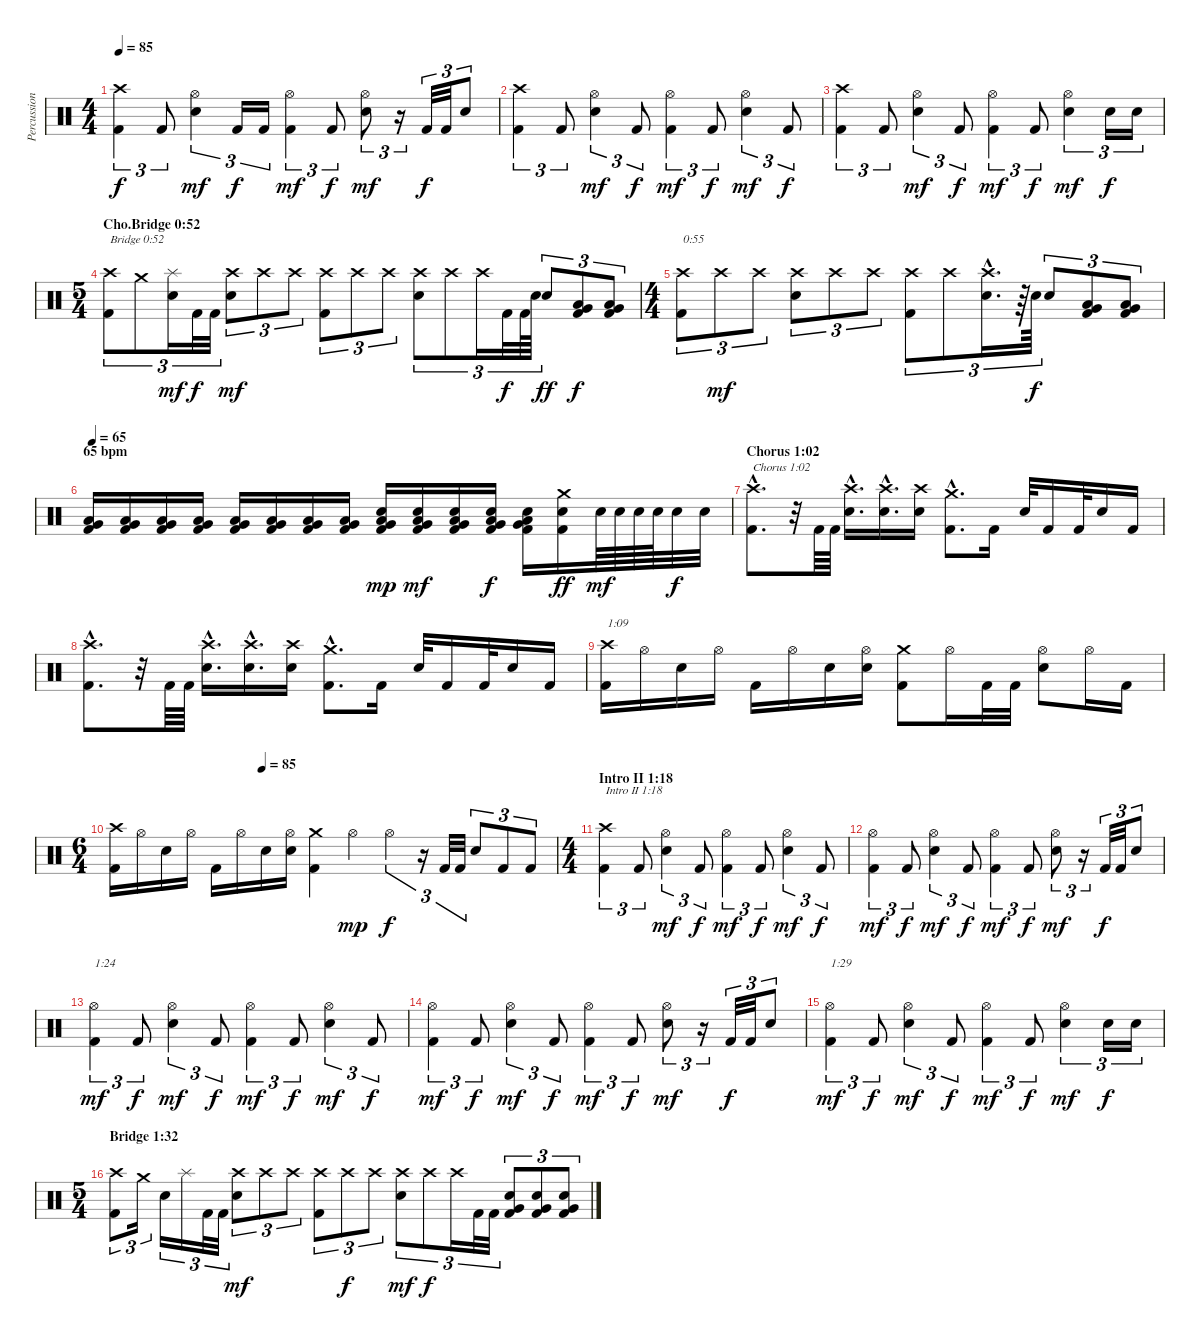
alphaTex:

\track ("Percussion" "Percussion") {instrument percussion}
\staff {score}
\articulation defaults
\ts (4 4)
\tempo 85
\clef neutral
\ks c
("Kick (hit) 2" "Crash high (hit)").4{tu (3 2) dy f} "Kick (hit) 2".8{tu (3 2)} ("Electric Snare (hit)" "Hi-Hat (open)").4{tu (3 2) dy mf} "Kick (hit) 2".16{tu (3 2) dy f} "Kick (hit) 2".16{tu (3 2)} ("Kick (hit) 2" "Hi-Hat (open)").4{tu (3 2) dy mf} "Kick (hit) 2".8{tu (3 2) dy f} ("Electric Snare (hit)" "Hi-Hat (open)").8{tu (3 2) dy mf} r.16{tu (3 2)} "Kick (hit) 2".32{tu (3 2) dy f} "Kick (hit) 2".32{tu (3 2)} "Electric Snare (hit)".8{tu (3 2)} |
("Kick (hit) 2" "Crash high (hit)").4{tu (3 2)} "Kick (hit) 2".8{tu (3 2)} ("Electric Snare (hit)" "Hi-Hat (open)").4{tu (3 2) dy mf} "Kick (hit) 2".8{tu (3 2) dy f} ("Kick (hit) 2" "Hi-Hat (open)").4{tu (3 2) dy mf} "Kick (hit) 2".8{tu (3 2) dy f} ("Electric Snare (hit)" "Hi-Hat (open)").4{tu (3 2) dy mf} "Kick (hit) 2".8{tu (3 2) dy f} |
("Kick (hit) 2" "Crash high (hit)").4{tu (3 2)} "Kick (hit) 2".8{tu (3 2)} ("Electric Snare (hit)" "Hi-Hat (open)").4{tu (3 2) dy mf} "Kick (hit) 2".8{tu (3 2) dy f} ("Kick (hit) 2" "Hi-Hat (open)").4{tu (3 2) dy mf} "Kick (hit) 2".8{tu (3 2) dy f} ("Electric Snare (hit)" "Hi-Hat (open)").4{tu (3 2) dy mf} "Electric Snare (hit)".16{tu (3 2) dy f} "Electric Snare (hit)".16{tu (3 2)} |
\ts (5 4)
\section ("" "Cho.Bridge 0:52")
("Kick (hit) 2" "Crash high (hit)").8{tu (3 2) txt "Bridge 0:52"} "Crash medium (hit)".8{tu (3 2)} ("Electric Snare (hit)" "Splash (hit)").16{tu (3 2) dy mf} "Kick (hit) 2".32{tu (3 2) dy f} "Kick (hit) 2".32{tu (3 2)} ("Electric Snare (hit)" "Crash high (hit)").8{tu (3 2) dy mf} "Crash high (hit)".8{tu (3 2)} "Crash high (hit)".8{tu (3 2)} ("Kick (hit) 2" "Crash high (hit)").8{tu (3 2)} "Crash high (hit)".8{tu (3 2)} "Crash high (hit)".8{tu (3 2)} ("Electric Snare (hit)" "Crash high (hit)").8{tu (3 2)} "Crash high (hit)".8{tu (3 2)} "Crash high (hit)".16{tu (3 2)} "Kick (hit) 2".32{tu (3 2) dy f} "Kick (hit) 2".64{tu (3 2)} "Electric Snare (hit)".64{tu (3 2)} "Electric Snare (hit)".8{tu (3 2) dy ff} ("Kick (hit) 2" "Low Tom (hit)" "Very Low Tom (hit)").8{tu (3 2) dy f} ("Kick (hit) 2" "Low Tom (hit)" "Very Low Tom (hit)").8{tu (3 2)} |
\ts (4 4)
("Kick (hit) 2" "Crash high (hit)").8{tu (3 2) txt "0:55"} "Crash high (hit)".8{tu (3 2) dy mf} "Crash high (hit)".8{tu (3 2)} ("Electric Snare (hit)" "Crash high (hit)").8{tu (3 2)} "Crash high (hit)".8{tu (3 2)} "Crash high (hit)".8{tu (3 2)} ("Kick (hit) 2" "Crash high (hit)").8{tu (3 2)} "Crash high (hit)".8{tu (3 2)} ("Electric Snare (hit)"{hac} "Crash high (hit)"{hac}).16{d tu (3 2)} r.64{tu (3 2)} "Electric Snare (hit)".64{tu (3 2) dy f} "Electric Snare (hit)".8{tu (3 2)} ("Kick (hit) 2" "Low Tom (hit)" "Very Low Tom (hit)").8{tu (3 2)} ("Kick (hit) 2" "Low Tom (hit)" "Very Low Tom (hit)").8{tu (3 2)} |
\section ("" "65 bpm")
\tempo 65
("Kick (hit) 2" "Low Tom (hit)" "Very Low Tom (hit)").16{volume 11} ("Kick (hit) 2" "Low Tom (hit)" "Very Low Tom (hit)").16{volume 14} ("Kick (hit) 2" "Low Tom (hit)" "Very Low Tom (hit)").16 ("Kick (hit) 2" "Low Tom (hit)" "Very Low Tom (hit)").16 ("Kick (hit) 2" "Low Tom (hit)" "Very Low Tom (hit)").16 ("Kick (hit) 2" "Low Tom (hit)" "Very Low Tom (hit)").16 ("Kick (hit) 2" "Low Tom (hit)" "Very Low Tom (hit)").16 ("Kick (hit) 2" "Low Tom (hit)" "Very Low Tom (hit)").16 ("Kick (hit) 2" "Low Tom (hit)" "Very Low Tom (hit)" "Electric Snare (hit)").16{dy mp} ("Kick (hit) 2" "Low Tom (hit)" "Very Low Tom (hit)" "Electric Snare (hit)").16{dy mf} ("Kick (hit) 2" "Low Tom (hit)" "Very Low Tom (hit)" "Electric Snare (hit)").16 ("Kick (hit) 2" "Low Tom (hit)" "Very Low Tom (hit)" "Electric Snare (hit)").16{dy f} ("Kick (hit) 2" "Low Tom (hit)" "Very Low Tom (hit)" "Electric Snare (hit)").16 ("Kick (hit) 2" "Electric Snare (hit)" "Crash medium (hit)").16{dy ff} "Electric Snare (hit)".64{dy mf} "Electric Snare (hit)".64 "Electric Snare (hit)".64 "Electric Snare (hit)".64 "Electric Snare (hit)".32{dy f} "Electric Snare (hit)".32 |
\section ("" "Chorus 1:02")
("Kick (hit) 2"{hac} "Crash high (hit)"{hac}).8{d txt "Chorus 1:02"} r.32 "Kick (hit) 2".64 "Kick (hit) 2".64 ("Electric Snare (hit)"{hac} "Crash high (hit)"{hac}).16{d} ("Electric Snare (hit)"{hac} "Crash high (hit)"{hac}).16{d} ("Electric Snare (hit)" "Crash high (hit)").16 ("Kick (hit) 2"{hac} "Crash medium (hit)"{hac}).8{d} "Kick (hit) 2".16 "Electric Snare (hit)".32 "Kick (hit) 2".16 "Kick (hit) 2".32 "Electric Snare (hit)".16 "Kick (hit) 2".16 |
("Kick (hit) 2"{hac} "Crash high (hit)"{hac}).8{d} r.32 "Kick (hit) 2".64 "Kick (hit) 2".64 ("Electric Snare (hit)"{hac} "Crash high (hit)"{hac}).16{d} ("Electric Snare (hit)"{hac} "Crash high (hit)"{hac}).16{d} ("Electric Snare (hit)" "Crash high (hit)").16 ("Kick (hit) 2"{hac} "Crash medium (hit)"{hac}).8{d} "Kick (hit) 2".16 "Electric Snare (hit)".32 "Kick (hit) 2".16 "Kick (hit) 2".32 "Electric Snare (hit)".16 "Kick (hit) 2".16 |
("Kick (hit) 2" "Crash high (hit)").16{txt "1:09"} "Hi-Hat (open)".16 "Electric Snare (hit)".16 "Hi-Hat (open)".16 "Kick (hit) 2".16 "Hi-Hat (open)".16 "Electric Snare (hit)".16 ("Electric Snare (hit)" "Hi-Hat (open)").16 ("Kick (hit) 2" "Crash medium (hit)").8 "Hi-Hat (open)".16 "Kick (hit) 2".32 "Kick (hit) 2".32 ("Electric Snare (hit)" "Hi-Hat (open)").8 "Hi-Hat (open)".16 "Kick (hit) 2".16 |
\ts (6 4)
\tempo (85 0.3333333333333333)
("Kick (hit) 2" "Crash high (hit)").16 "Hi-Hat (open)".16 "Electric Snare (hit)".16 "Hi-Hat (open)".16 "Kick (hit) 2".16 "Hi-Hat (open)".16 "Electric Snare (hit)".16 ("Electric Snare (hit)" "Hi-Hat (open)").16 ("Kick (hit) 2" "Crash medium (hit)").4 "Hi-Hat (open)".4{dy mp} "Hi-Hat (open)".4{tu (3 2) dy f} r.16{tu (3 2)} "Kick (hit) 2".32{tu (3 2)} "Kick (hit) 2".32{tu (3 2)} "Electric Snare (hit)".8{tu (3 2)} "Kick (hit) 2".8{tu (3 2)} "Kick (hit) 2".8{tu (3 2)} |
\ts (4 4)
\section ("" "Intro II 1:18")
("Kick (hit) 2" "Crash high (hit)").4{tu (3 2) txt "Intro II 1:18"} "Kick (hit) 2".8{tu (3 2)} ("Electric Snare (hit)" "Hi-Hat (open)").4{tu (3 2) dy mf} "Kick (hit) 2".8{tu (3 2) dy f} ("Kick (hit) 2" "Hi-Hat (open)").4{tu (3 2) dy mf} "Kick (hit) 2".8{tu (3 2) dy f} ("Electric Snare (hit)" "Hi-Hat (open)").4{tu (3 2) dy mf} "Kick (hit) 2".8{tu (3 2) dy f} |
("Kick (hit) 2" "Hi-Hat (open)").4{tu (3 2) dy mf} "Kick (hit) 2".8{tu (3 2) dy f} ("Electric Snare (hit)" "Hi-Hat (open)").4{tu (3 2) dy mf} "Kick (hit) 2".8{tu (3 2) dy f} ("Kick (hit) 2" "Hi-Hat (open)").4{tu (3 2) dy mf} "Kick (hit) 2".8{tu (3 2) dy f} ("Electric Snare (hit)" "Hi-Hat (open)").8{tu (3 2) dy mf} r.16{tu (3 2)} "Kick (hit) 2".32{tu (3 2) dy f} "Kick (hit) 2".32{tu (3 2)} "Electric Snare (hit)".8{tu (3 2)} |
("Kick (hit) 2" "Hi-Hat (open)").4{tu (3 2) txt "1:24" dy mf} "Kick (hit) 2".8{tu (3 2) dy f} ("Electric Snare (hit)" "Hi-Hat (open)").4{tu (3 2) dy mf} "Kick (hit) 2".8{tu (3 2) dy f} ("Kick (hit) 2" "Hi-Hat (open)").4{tu (3 2) dy mf} "Kick (hit) 2".8{tu (3 2) dy f} ("Electric Snare (hit)" "Hi-Hat (open)").4{tu (3 2) dy mf} "Kick (hit) 2".8{tu (3 2) dy f} |
("Kick (hit) 2" "Hi-Hat (open)").4{tu (3 2) dy mf} "Kick (hit) 2".8{tu (3 2) dy f} ("Electric Snare (hit)" "Hi-Hat (open)").4{tu (3 2) dy mf} "Kick (hit) 2".8{tu (3 2) dy f} ("Kick (hit) 2" "Hi-Hat (open)").4{tu (3 2) dy mf} "Kick (hit) 2".8{tu (3 2) dy f} ("Electric Snare (hit)" "Hi-Hat (open)").8{tu (3 2) dy mf} r.16{tu (3 2)} "Kick (hit) 2".32{tu (3 2) dy f} "Kick (hit) 2".32{tu (3 2)} "Electric Snare (hit)".8{tu (3 2)} |
("Kick (hit) 2" "Hi-Hat (open)").4{tu (3 2) txt "1:29" dy mf} "Kick (hit) 2".8{tu (3 2) dy f} ("Electric Snare (hit)" "Hi-Hat (open)").4{tu (3 2) dy mf} "Kick (hit) 2".8{tu (3 2) dy f} ("Kick (hit) 2" "Hi-Hat (open)").4{tu (3 2) dy mf} "Kick (hit) 2".8{tu (3 2) dy f} ("Electric Snare (hit)" "Hi-Hat (open)").4{tu (3 2) dy mf} "Electric Snare (hit)".16{tu (3 2) dy f} "Electric Snare (hit)".16{tu (3 2)} |
\ts (5 4)
\section ("" "Bridge 1:32")
("Kick (hit) 2" "Crash high (hit)").8{tu (3 2)} "Crash medium (hit)".16{tu (3 2)} "Electric Snare (hit)".16{tu (3 2)} "Splash (hit)".16{tu (3 2)} "Kick (hit) 2".32{tu (3 2)} "Kick (hit) 2".32{tu (3 2)} ("Electric Snare (hit)" "Crash high (hit)").8{tu (3 2) dy mf} "Crash high (hit)".8{tu (3 2)} "Crash high (hit)".8{tu (3 2)} ("Kick (hit) 2" "Crash high (hit)").8{tu (3 2)} "Crash high (hit)".8{tu (3 2) dy f} "Crash high (hit)".8{tu (3 2)} ("Electric Snare (hit)" "Crash high (hit)").8{tu (3 2) dy mf} "Crash high (hit)".8{tu (3 2) dy f} "Crash high (hit)".16{tu (3 2)} "Kick (hit) 2".32{tu (3 2)} "Kick (hit) 2".32{tu (3 2)} ("Kick (hit) 2" "Very Low Tom (hit)" "Electric Snare (hit)").8{tu (3 2)} ("Kick (hit) 2" "Very Low Tom (hit)" "Electric Snare (hit)").8{tu (3 2)} ("Kick (hit) 2" "Very Low Tom (hit)" "Electric Snare (hit)").8{tu (3 2)}
